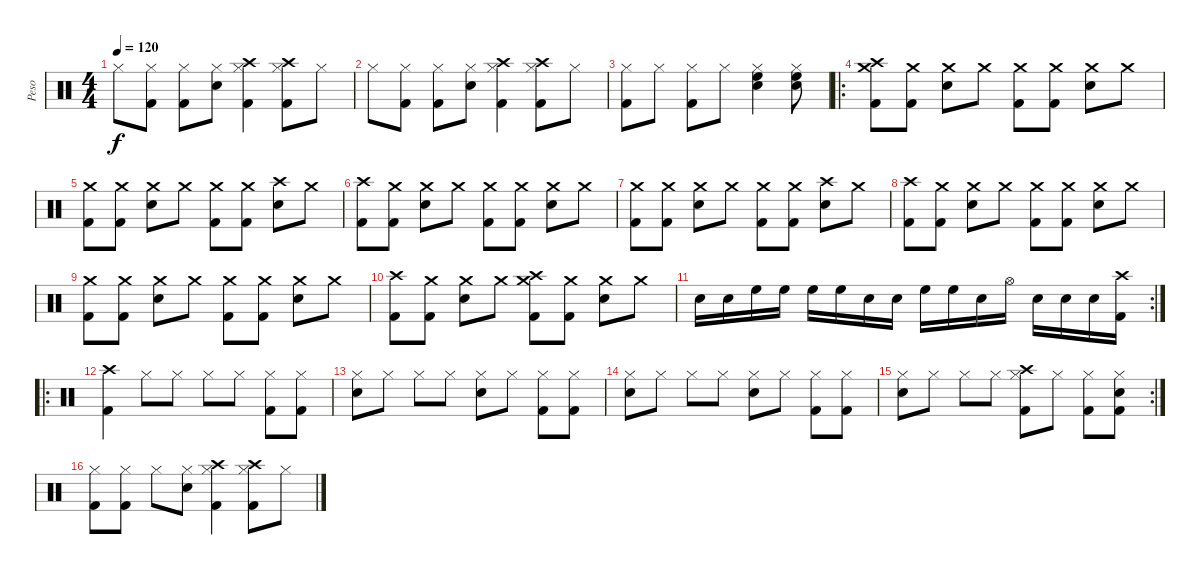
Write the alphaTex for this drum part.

\track ("Peso" "Peso") {instrument percussion}
\staff {score}
\articulation defaults
\ts (4 4)
\tempo 120
\clef neutral
\ks c "Hi-Hat (closed)".8{dy f}
("Hi-Hat (closed)" "Kick (hit) 2").8 ("Hi-Hat (closed)" "Kick (hit) 2").8 ("Hi-Hat (closed)" "Snare (hit) 2").8 ("Crash high (hit)" "Hi-Hat (closed)" "Kick (hit) 2").4 ("Crash high (hit)" "Hi-Hat (closed)" "Kick (hit) 2").8 "Hi-Hat (closed)".8 |
"Hi-Hat (closed)".8 ("Hi-Hat (closed)" "Kick (hit) 2").8 ("Hi-Hat (closed)" "Kick (hit) 2").8 ("Hi-Hat (closed)" "Snare (hit) 2").8 ("Crash high (hit)" "Hi-Hat (closed)" "Kick (hit) 2").4 ("Crash high (hit)" "Hi-Hat (closed)" "Kick (hit) 2").8 "Hi-Hat (closed)".8 |
("Hi-Hat (closed)" "Kick (hit) 2").8 "Hi-Hat (closed)".8 ("Hi-Hat (closed)" "Kick (hit) 2").8 "Hi-Hat (closed)".8 ("Hi-Hat (closed)" "Snare (hit) 2" "High Floor Tom (hit)").4 ("Hi-Hat (closed)" "Snare (hit) 2" "High Floor Tom (hit)").8 |
\ro
("Crash high (hit)" "Crash medium (hit)" "Kick (hit) 2").8 ("Crash medium (hit)" "Kick (hit) 2").8 ("Crash medium (hit)" "Snare (hit) 2").8 "Crash medium (hit)".8 ("Crash medium (hit)" "Kick (hit) 2").8 ("Crash medium (hit)" "Kick (hit) 2").8 ("Crash medium (hit)" "Snare (hit) 2").8 "Crash medium (hit)".8 |
("Crash medium (hit)" "Kick (hit) 2").8 ("Crash medium (hit)" "Kick (hit) 2").8 ("Crash medium (hit)" "Snare (hit) 2").8 "Crash medium (hit)".8 ("Crash medium (hit)" "Kick (hit) 2").8 ("Crash medium (hit)" "Kick (hit) 2").8 ("Crash high (hit)" "Snare (hit) 2").8 "Crash medium (hit)".8 |
("Crash high (hit)" "Kick (hit) 2").8 ("Crash medium (hit)" "Kick (hit) 2").8 ("Crash medium (hit)" "Snare (hit) 2").8 "Crash medium (hit)".8 ("Crash medium (hit)" "Kick (hit) 2").8 ("Crash medium (hit)" "Kick (hit) 2").8 ("Crash medium (hit)" "Snare (hit) 2").8 "Crash medium (hit)".8 |
("Crash medium (hit)" "Kick (hit) 2").8 ("Crash medium (hit)" "Kick (hit) 2").8 ("Crash medium (hit)" "Snare (hit) 2").8 "Crash medium (hit)".8 ("Crash medium (hit)" "Kick (hit) 2").8 ("Crash medium (hit)" "Kick (hit) 2").8 ("Crash high (hit)" "Snare (hit) 2").8 "Crash medium (hit)".8 |
("Crash high (hit)" "Kick (hit) 2").8 ("Crash medium (hit)" "Kick (hit) 2").8 ("Crash medium (hit)" "Snare (hit) 2").8 "Crash medium (hit)".8 ("Crash medium (hit)" "Kick (hit) 2").8 ("Crash medium (hit)" "Kick (hit) 2").8 ("Crash medium (hit)" "Snare (hit) 2").8 "Crash medium (hit)".8 |
("Crash medium (hit)" "Kick (hit) 2").8 ("Crash medium (hit)" "Kick (hit) 2").8 ("Crash medium (hit)" "Snare (hit) 2").8 "Crash medium (hit)".8 ("Crash medium (hit)" "Kick (hit) 2").8 ("Crash medium (hit)" "Kick (hit) 2").8 ("Crash medium (hit)" "Snare (hit) 2").8 "Crash medium (hit)".8 |
("Crash high (hit)" "Kick (hit) 2").8 ("Crash medium (hit)" "Kick (hit) 2").8 ("Crash medium (hit)" "Snare (hit) 2").8 "Crash medium (hit)".8 ("Crash high (hit)" "Crash medium (hit)" "Kick (hit) 2").8 ("Crash medium (hit)" "Kick (hit) 2").8 ("Crash medium (hit)" "Snare (hit) 2").8 "Crash medium (hit)".8 |
\rc 2 "Snare (hit) 2".16 "Snare (hit) 2".16 "High Floor Tom (hit)".16 "High Floor Tom (hit)".16 "High Floor Tom (hit)".16 "High Floor Tom (hit)".16 "Snare (hit) 2".16 "Snare (hit) 2".16 "High Floor Tom (hit)".16 "High Floor Tom (hit)".16 "Snare (hit) 2".16 "Hi-Hat (open)".16 "Snare (hit) 2".16 "Snare (hit) 2".16 "Snare (hit) 2".16
("Crash high (hit)" "Kick (hit) 2").16 |
\ro
("Crash high (hit)" "Kick (hit) 2").4 "Hi-Hat (closed)".8 "Hi-Hat (closed)".8 "Hi-Hat (closed)".8 "Hi-Hat (closed)".8 ("Hi-Hat (closed)" "Kick (hit) 2").8 ("Hi-Hat (closed)" "Kick (hit) 2").8 |
("Hi-Hat (closed)" "Snare (hit) 2").8 "Hi-Hat (closed)".8 "Hi-Hat (closed)".8 "Hi-Hat (closed)".8 ("Hi-Hat (closed)" "Snare (hit) 2").8 "Hi-Hat (closed)".8 ("Hi-Hat (closed)" "Kick (hit) 2").8 ("Hi-Hat (closed)" "Kick (hit) 2").8 |
("Hi-Hat (closed)" "Snare (hit) 2").8 "Hi-Hat (closed)".8 "Hi-Hat (closed)".8 "Hi-Hat (closed)".8 ("Hi-Hat (closed)" "Snare (hit) 2").8 "Hi-Hat (closed)".8 ("Hi-Hat (closed)" "Kick (hit) 2").8 ("Hi-Hat (closed)" "Kick (hit) 2").8 |
\rc 2
("Hi-Hat (closed)" "Snare (hit) 2").8 "Hi-Hat (closed)".8 "Hi-Hat (closed)".8 "Hi-Hat (closed)".8 ("Crash high (hit)" "Hi-Hat (closed)" "Kick (hit) 2").8 "Hi-Hat (closed)".8 ("Hi-Hat (closed)" "Kick (hit) 2").8 ("Hi-Hat (closed)" "Snare (hit) 2" "Kick (hit) 2").8 |
("Hi-Hat (closed)" "Kick (hit) 2").8 ("Hi-Hat (closed)" "Kick (hit) 2").8 "Hi-Hat (closed)".8 ("Hi-Hat (closed)" "Snare (hit) 2").8 ("Crash high (hit)" "Hi-Hat (closed)" "Kick (hit) 2").4 ("Crash high (hit)" "Hi-Hat (closed)" "Kick (hit) 2").8 "Hi-Hat (closed)".8
